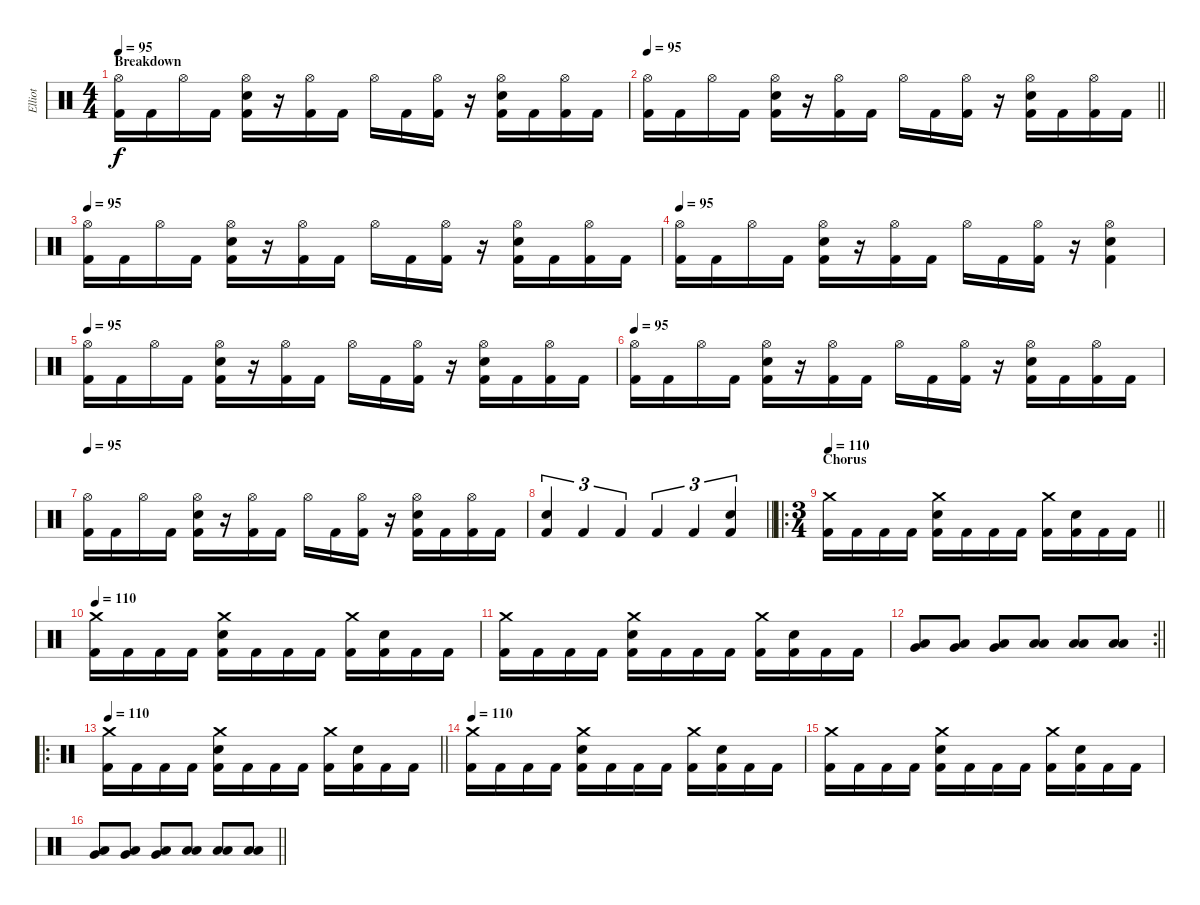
\track ("Elliot" "Elliot") {instrument percussion}
\staff {score}
\articulation defaults
\ts (4 4)
\section ("" "Breakdown")
\tempo 95
\clef neutral
\ks c
("Hi-Hat (open)" "Kick (hit) 2").16{dy f} "Kick (hit) 2".16 "Hi-Hat (open)".16 "Kick (hit) 2".16 ("Hi-Hat (open)" "Electric Snare (hit)" "Kick (hit) 2").16 r.16 ("Hi-Hat (open)" "Kick (hit) 2").16 "Kick (hit) 2".16 "Hi-Hat (open)".16 "Kick (hit) 2".16 ("Hi-Hat (open)" "Kick (hit) 2").16 r.16 ("Hi-Hat (open)" "Electric Snare (hit)" "Kick (hit) 2").16 "Kick (hit) 2".16 ("Hi-Hat (open)" "Kick (hit) 2").16 "Kick (hit) 2".16 |
\tempo 95
\barLineRight lightlight
("Hi-Hat (open)" "Kick (hit) 2").16 "Kick (hit) 2".16 "Hi-Hat (open)".16 "Kick (hit) 2".16 ("Hi-Hat (open)" "Electric Snare (hit)" "Kick (hit) 2").16 r.16 ("Hi-Hat (open)" "Kick (hit) 2").16 "Kick (hit) 2".16 "Hi-Hat (open)".16 "Kick (hit) 2".16 ("Hi-Hat (open)" "Kick (hit) 2").16 r.16 ("Hi-Hat (open)" "Electric Snare (hit)" "Kick (hit) 2").16 "Kick (hit) 2".16 ("Hi-Hat (open)" "Kick (hit) 2").16 "Kick (hit) 2".16 |
\section ("" "")
\tempo 95
("Hi-Hat (open)" "Kick (hit) 2").16 "Kick (hit) 2".16 "Hi-Hat (open)".16 "Kick (hit) 2".16 ("Hi-Hat (open)" "Electric Snare (hit)" "Kick (hit) 2").16 r.16 ("Hi-Hat (open)" "Kick (hit) 2").16 "Kick (hit) 2".16 "Hi-Hat (open)".16 "Kick (hit) 2".16 ("Hi-Hat (open)" "Kick (hit) 2").16 r.16 ("Hi-Hat (open)" "Electric Snare (hit)" "Kick (hit) 2").16 "Kick (hit) 2".16 ("Hi-Hat (open)" "Kick (hit) 2").16 "Kick (hit) 2".16 |
\tempo 95
("Hi-Hat (open)" "Kick (hit) 2").16 "Kick (hit) 2".16 "Hi-Hat (open)".16 "Kick (hit) 2".16 ("Hi-Hat (open)" "Electric Snare (hit)" "Kick (hit) 2").16 r.16 ("Hi-Hat (open)" "Kick (hit) 2").16 "Kick (hit) 2".16 "Hi-Hat (open)".16 "Kick (hit) 2".16 ("Hi-Hat (open)" "Kick (hit) 2").16 r.16 ("Hi-Hat (open)" "Electric Snare (hit)" "Kick (hit) 2").4 |
\tempo 95
("Hi-Hat (open)" "Kick (hit) 2").16 "Kick (hit) 2".16 "Hi-Hat (open)".16 "Kick (hit) 2".16 ("Hi-Hat (open)" "Electric Snare (hit)" "Kick (hit) 2").16 r.16 ("Hi-Hat (open)" "Kick (hit) 2").16 "Kick (hit) 2".16 "Hi-Hat (open)".16 "Kick (hit) 2".16 ("Hi-Hat (open)" "Kick (hit) 2").16 r.16 ("Hi-Hat (open)" "Electric Snare (hit)" "Kick (hit) 2").16 "Kick (hit) 2".16 ("Hi-Hat (open)" "Kick (hit) 2").16 "Kick (hit) 2".16 |
\tempo 95
("Hi-Hat (open)" "Kick (hit) 2").16 "Kick (hit) 2".16 "Hi-Hat (open)".16 "Kick (hit) 2".16 ("Hi-Hat (open)" "Electric Snare (hit)" "Kick (hit) 2").16 r.16 ("Hi-Hat (open)" "Kick (hit) 2").16 "Kick (hit) 2".16 "Hi-Hat (open)".16 "Kick (hit) 2".16 ("Hi-Hat (open)" "Kick (hit) 2").16 r.16 ("Hi-Hat (open)" "Electric Snare (hit)" "Kick (hit) 2").16 "Kick (hit) 2".16 ("Hi-Hat (open)" "Kick (hit) 2").16 "Kick (hit) 2".16 |
\tempo 95
("Hi-Hat (open)" "Kick (hit) 2").16 "Kick (hit) 2".16 "Hi-Hat (open)".16 "Kick (hit) 2".16 ("Hi-Hat (open)" "Electric Snare (hit)" "Kick (hit) 2").16 r.16 ("Hi-Hat (open)" "Kick (hit) 2").16 "Kick (hit) 2".16 "Hi-Hat (open)".16 "Kick (hit) 2".16 ("Hi-Hat (open)" "Kick (hit) 2").16 r.16 ("Hi-Hat (open)" "Electric Snare (hit)" "Kick (hit) 2").16 "Kick (hit) 2".16 ("Hi-Hat (open)" "Kick (hit) 2").16 "Kick (hit) 2".16 |
\barLineRight lightlight
("Electric Snare (hit)" "Kick (hit) 2").4{tu (3 2)} "Kick (hit) 2".4{tu (3 2)} "Kick (hit) 2".4{tu (3 2)} "Kick (hit) 2".4{tu (3 2)} "Kick (hit) 2".4{tu (3 2)} ("Electric Snare (hit)" "Kick (hit) 2").4{tu (3 2)} |
\ro
\ts (3 4)
\section ("" "Chorus")
\tempo 110
\barLineRight lightlight
("Crash medium (hit)" "Kick (hit) 2").16 "Kick (hit) 2".16 "Kick (hit) 2".16 "Kick (hit) 2".16 ("Crash medium (hit)" "Electric Snare (hit)" "Kick (hit) 2").16 "Kick (hit) 2".16 "Kick (hit) 2".16 "Kick (hit) 2".16 ("Crash medium (hit)" "Kick (hit) 2").16 ("Electric Snare (hit)" "Kick (hit) 2").16 "Kick (hit) 2".16 "Kick (hit) 2".16 |
\tempo 110
("Crash medium (hit)" "Kick (hit) 2").16 "Kick (hit) 2".16 "Kick (hit) 2".16 "Kick (hit) 2".16 ("Crash medium (hit)" "Electric Snare (hit)" "Kick (hit) 2").16 "Kick (hit) 2".16 "Kick (hit) 2".16 "Kick (hit) 2".16 ("Crash medium (hit)" "Kick (hit) 2").16 ("Electric Snare (hit)" "Kick (hit) 2").16 "Kick (hit) 2".16 "Kick (hit) 2".16 |
("Crash medium (hit)" "Kick (hit) 2").16 "Kick (hit) 2".16 "Kick (hit) 2".16 "Kick (hit) 2".16 ("Crash medium (hit)" "Electric Snare (hit)" "Kick (hit) 2").16 "Kick (hit) 2".16 "Kick (hit) 2".16 "Kick (hit) 2".16 ("Crash medium (hit)" "Kick (hit) 2").16 ("Electric Snare (hit)" "Kick (hit) 2").16 "Kick (hit) 2".16 "Kick (hit) 2".16 |
\rc 2
\barLineRight lightlight
("Low Tom (hit)" "Very Low Tom (hit)").8 ("Low Tom (hit)" "Very Low Tom (hit)").8 ("Low Tom (hit)" "Very Low Tom (hit)").8 ("Low Tom (hit)" "Low Floor Tom (hit)").8 ("Low Tom (hit)" "Low Floor Tom (hit)").8 ("Low Tom (hit)" "Low Floor Tom (hit)").8 |
\ro
\tempo 110
\barLineRight lightlight
("Crash medium (hit)" "Kick (hit) 2").16 "Kick (hit) 2".16 "Kick (hit) 2".16 "Kick (hit) 2".16 ("Crash medium (hit)" "Electric Snare (hit)" "Kick (hit) 2").16 "Kick (hit) 2".16 "Kick (hit) 2".16 "Kick (hit) 2".16 ("Crash medium (hit)" "Kick (hit) 2").16 ("Electric Snare (hit)" "Kick (hit) 2").16 "Kick (hit) 2".16 "Kick (hit) 2".16 |
\tempo 110
("Crash medium (hit)" "Kick (hit) 2").16 "Kick (hit) 2".16 "Kick (hit) 2".16 "Kick (hit) 2".16 ("Crash medium (hit)" "Electric Snare (hit)" "Kick (hit) 2").16 "Kick (hit) 2".16 "Kick (hit) 2".16 "Kick (hit) 2".16 ("Crash medium (hit)" "Kick (hit) 2").16 ("Electric Snare (hit)" "Kick (hit) 2").16 "Kick (hit) 2".16 "Kick (hit) 2".16 |
("Crash medium (hit)" "Kick (hit) 2").16 "Kick (hit) 2".16 "Kick (hit) 2".16 "Kick (hit) 2".16 ("Crash medium (hit)" "Electric Snare (hit)" "Kick (hit) 2").16 "Kick (hit) 2".16 "Kick (hit) 2".16 "Kick (hit) 2".16 ("Crash medium (hit)" "Kick (hit) 2").16 ("Electric Snare (hit)" "Kick (hit) 2").16 "Kick (hit) 2".16 "Kick (hit) 2".16 |
\barLineRight lightlight
("Low Tom (hit)" "Very Low Tom (hit)").8 ("Low Tom (hit)" "Very Low Tom (hit)").8 ("Low Tom (hit)" "Very Low Tom (hit)").8 ("Low Tom (hit)" "Low Floor Tom (hit)").8 ("Low Tom (hit)" "Low Floor Tom (hit)").8 ("Low Tom (hit)" "Low Floor Tom (hit)").8
